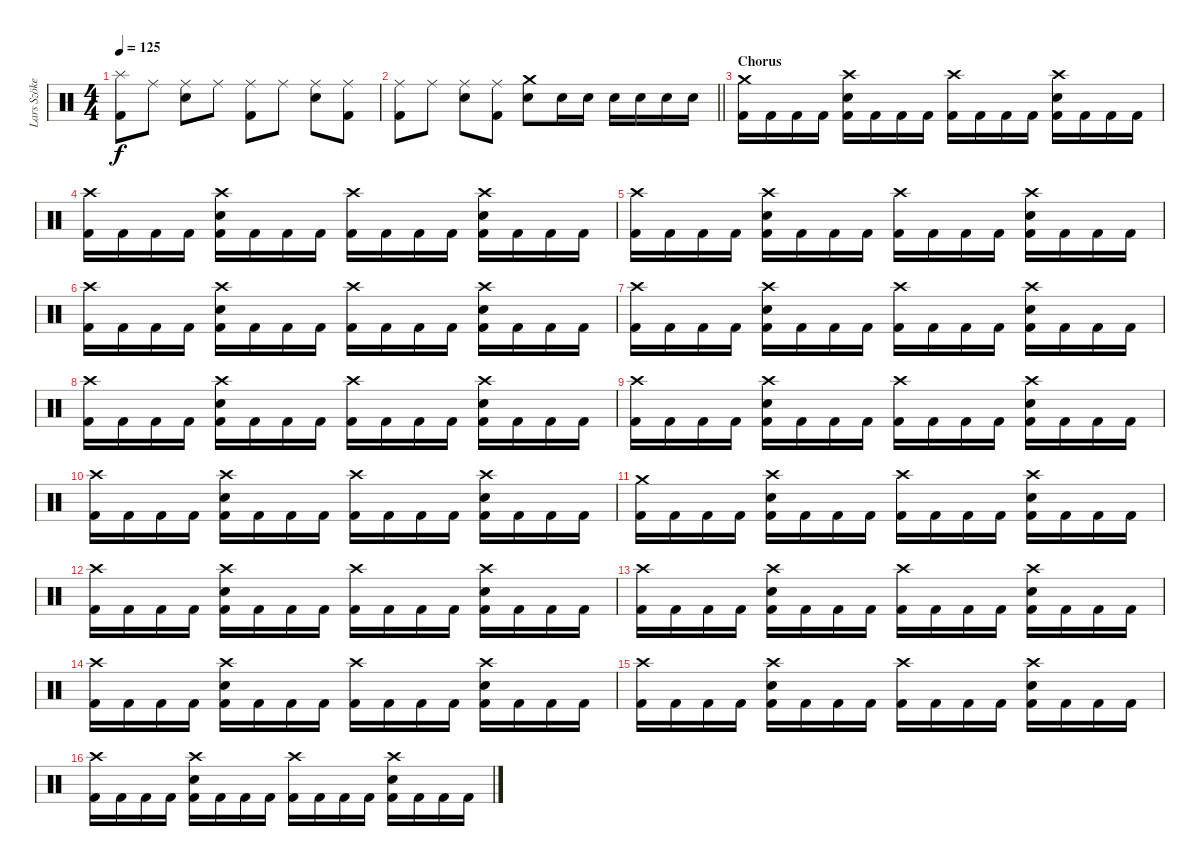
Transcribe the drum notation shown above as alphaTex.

\track ("Lars Szöke" "Lars Szöke") {instrument percussion}
\staff {score}
\articulation defaults
\ts (4 4)
\tempo 125
\clef neutral
\ks c
("Splash (hit)" "Kick (hit) 2").8{dy f} "Ride (middle)".8 ("Ride (middle)" "Snare (hit) 2").8 "Ride (middle)".8 ("Ride (middle)" "Kick (hit) 2").8 "Ride (middle)".8 ("Ride (middle)" "Snare (hit) 2").8 ("Ride (middle)" "Kick (hit) 2").8 |
\barLineRight lightlight
("Ride (middle)" "Kick (hit) 2").8 "Ride (middle)".8 ("Ride (middle)" "Snare (hit) 2").8 ("Ride (middle)" "Kick (hit) 2").8 ("Crash medium (hit)" "Snare (hit) 2").8 "Snare (hit) 2".16 "Snare (hit) 2".16 "Snare (hit) 2".16 "Snare (hit) 2".16 "Snare (hit) 2".16 "Snare (hit) 2".16 |
\section ("" "Chorus ")
("Crash medium (hit)" "Kick (hit) 2").16 "Kick (hit) 2".16 "Kick (hit) 2".16 "Kick (hit) 2".16 ("Crash high (hit)" "Snare (hit) 2" "Kick (hit) 2").16 "Kick (hit) 2".16 "Kick (hit) 2".16 "Kick (hit) 2".16 ("Crash high (hit)" "Kick (hit) 2").16 "Kick (hit) 2".16 "Kick (hit) 2".16 "Kick (hit) 2".16 ("Crash high (hit)" "Snare (hit) 2" "Kick (hit) 2").16 "Kick (hit) 2".16 "Kick (hit) 2".16 "Kick (hit) 2".16 |
("Crash high (hit)" "Kick (hit) 2").16 "Kick (hit) 2".16 "Kick (hit) 2".16 "Kick (hit) 2".16 ("Crash high (hit)" "Snare (hit) 2" "Kick (hit) 2").16 "Kick (hit) 2".16 "Kick (hit) 2".16 "Kick (hit) 2".16 ("Crash high (hit)" "Kick (hit) 2").16 "Kick (hit) 2".16 "Kick (hit) 2".16 "Kick (hit) 2".16 ("Crash high (hit)" "Snare (hit) 2" "Kick (hit) 2").16 "Kick (hit) 2".16 "Kick (hit) 2".16 "Kick (hit) 2".16 |
("Crash high (hit)" "Kick (hit) 2").16 "Kick (hit) 2".16 "Kick (hit) 2".16 "Kick (hit) 2".16 ("Crash high (hit)" "Snare (hit) 2" "Kick (hit) 2").16 "Kick (hit) 2".16 "Kick (hit) 2".16 "Kick (hit) 2".16 ("Crash high (hit)" "Kick (hit) 2").16 "Kick (hit) 2".16 "Kick (hit) 2".16 "Kick (hit) 2".16 ("Crash high (hit)" "Snare (hit) 2" "Kick (hit) 2").16 "Kick (hit) 2".16 "Kick (hit) 2".16 "Kick (hit) 2".16 |
("Crash high (hit)" "Kick (hit) 2").16 "Kick (hit) 2".16 "Kick (hit) 2".16 "Kick (hit) 2".16 ("Crash high (hit)" "Snare (hit) 2" "Kick (hit) 2").16 "Kick (hit) 2".16 "Kick (hit) 2".16 "Kick (hit) 2".16 ("Crash high (hit)" "Kick (hit) 2").16 "Kick (hit) 2".16 "Kick (hit) 2".16 "Kick (hit) 2".16 ("Crash high (hit)" "Snare (hit) 2" "Kick (hit) 2").16 "Kick (hit) 2".16 "Kick (hit) 2".16 "Kick (hit) 2".16 |
("Crash high (hit)" "Kick (hit) 2").16 "Kick (hit) 2".16 "Kick (hit) 2".16 "Kick (hit) 2".16 ("Crash high (hit)" "Snare (hit) 2" "Kick (hit) 2").16 "Kick (hit) 2".16 "Kick (hit) 2".16 "Kick (hit) 2".16 ("Crash high (hit)" "Kick (hit) 2").16 "Kick (hit) 2".16 "Kick (hit) 2".16 "Kick (hit) 2".16 ("Crash high (hit)" "Snare (hit) 2" "Kick (hit) 2").16 "Kick (hit) 2".16 "Kick (hit) 2".16 "Kick (hit) 2".16 |
("Crash high (hit)" "Kick (hit) 2").16 "Kick (hit) 2".16 "Kick (hit) 2".16 "Kick (hit) 2".16 ("Crash high (hit)" "Snare (hit) 2" "Kick (hit) 2").16 "Kick (hit) 2".16 "Kick (hit) 2".16 "Kick (hit) 2".16 ("Crash high (hit)" "Kick (hit) 2").16 "Kick (hit) 2".16 "Kick (hit) 2".16 "Kick (hit) 2".16 ("Crash high (hit)" "Snare (hit) 2" "Kick (hit) 2").16 "Kick (hit) 2".16 "Kick (hit) 2".16 "Kick (hit) 2".16 |
("Crash high (hit)" "Kick (hit) 2").16 "Kick (hit) 2".16 "Kick (hit) 2".16 "Kick (hit) 2".16 ("Crash high (hit)" "Snare (hit) 2" "Kick (hit) 2").16 "Kick (hit) 2".16 "Kick (hit) 2".16 "Kick (hit) 2".16 ("Crash high (hit)" "Kick (hit) 2").16 "Kick (hit) 2".16 "Kick (hit) 2".16 "Kick (hit) 2".16 ("Crash high (hit)" "Snare (hit) 2" "Kick (hit) 2").16 "Kick (hit) 2".16 "Kick (hit) 2".16 "Kick (hit) 2".16 |
("Crash high (hit)" "Kick (hit) 2").16 "Kick (hit) 2".16 "Kick (hit) 2".16 "Kick (hit) 2".16 ("Crash high (hit)" "Snare (hit) 2" "Kick (hit) 2").16 "Kick (hit) 2".16 "Kick (hit) 2".16 "Kick (hit) 2".16 ("Crash high (hit)" "Kick (hit) 2").16 "Kick (hit) 2".16 "Kick (hit) 2".16 "Kick (hit) 2".16 ("Crash high (hit)" "Snare (hit) 2" "Kick (hit) 2").16 "Kick (hit) 2".16 "Kick (hit) 2".16 "Kick (hit) 2".16 |
("Crash medium (hit)" "Kick (hit) 2").16 "Kick (hit) 2".16 "Kick (hit) 2".16 "Kick (hit) 2".16 ("Crash high (hit)" "Snare (hit) 2" "Kick (hit) 2").16 "Kick (hit) 2".16 "Kick (hit) 2".16 "Kick (hit) 2".16 ("Crash high (hit)" "Kick (hit) 2").16 "Kick (hit) 2".16 "Kick (hit) 2".16 "Kick (hit) 2".16 ("Crash high (hit)" "Snare (hit) 2" "Kick (hit) 2").16 "Kick (hit) 2".16 "Kick (hit) 2".16 "Kick (hit) 2".16 |
("Crash high (hit)" "Kick (hit) 2").16 "Kick (hit) 2".16 "Kick (hit) 2".16 "Kick (hit) 2".16 ("Crash high (hit)" "Snare (hit) 2" "Kick (hit) 2").16 "Kick (hit) 2".16 "Kick (hit) 2".16 "Kick (hit) 2".16 ("Crash high (hit)" "Kick (hit) 2").16 "Kick (hit) 2".16 "Kick (hit) 2".16 "Kick (hit) 2".16 ("Crash high (hit)" "Snare (hit) 2" "Kick (hit) 2").16 "Kick (hit) 2".16 "Kick (hit) 2".16 "Kick (hit) 2".16 |
("Crash high (hit)" "Kick (hit) 2").16 "Kick (hit) 2".16 "Kick (hit) 2".16 "Kick (hit) 2".16 ("Crash high (hit)" "Snare (hit) 2" "Kick (hit) 2").16 "Kick (hit) 2".16 "Kick (hit) 2".16 "Kick (hit) 2".16 ("Crash high (hit)" "Kick (hit) 2").16 "Kick (hit) 2".16 "Kick (hit) 2".16 "Kick (hit) 2".16 ("Crash high (hit)" "Snare (hit) 2" "Kick (hit) 2").16 "Kick (hit) 2".16 "Kick (hit) 2".16 "Kick (hit) 2".16 |
("Crash high (hit)" "Kick (hit) 2").16 "Kick (hit) 2".16 "Kick (hit) 2".16 "Kick (hit) 2".16 ("Crash high (hit)" "Snare (hit) 2" "Kick (hit) 2").16 "Kick (hit) 2".16 "Kick (hit) 2".16 "Kick (hit) 2".16 ("Crash high (hit)" "Kick (hit) 2").16 "Kick (hit) 2".16 "Kick (hit) 2".16 "Kick (hit) 2".16 ("Crash high (hit)" "Snare (hit) 2" "Kick (hit) 2").16 "Kick (hit) 2".16 "Kick (hit) 2".16 "Kick (hit) 2".16 |
("Crash high (hit)" "Kick (hit) 2").16 "Kick (hit) 2".16 "Kick (hit) 2".16 "Kick (hit) 2".16 ("Crash high (hit)" "Snare (hit) 2" "Kick (hit) 2").16 "Kick (hit) 2".16 "Kick (hit) 2".16 "Kick (hit) 2".16 ("Crash high (hit)" "Kick (hit) 2").16 "Kick (hit) 2".16 "Kick (hit) 2".16 "Kick (hit) 2".16 ("Crash high (hit)" "Snare (hit) 2" "Kick (hit) 2").16 "Kick (hit) 2".16 "Kick (hit) 2".16 "Kick (hit) 2".16 |
("Crash high (hit)" "Kick (hit) 2").16 "Kick (hit) 2".16 "Kick (hit) 2".16 "Kick (hit) 2".16 ("Crash high (hit)" "Snare (hit) 2" "Kick (hit) 2").16 "Kick (hit) 2".16 "Kick (hit) 2".16 "Kick (hit) 2".16 ("Crash high (hit)" "Kick (hit) 2").16 "Kick (hit) 2".16 "Kick (hit) 2".16 "Kick (hit) 2".16 ("Crash high (hit)" "Snare (hit) 2" "Kick (hit) 2").16 "Kick (hit) 2".16 "Kick (hit) 2".16 "Kick (hit) 2".16
